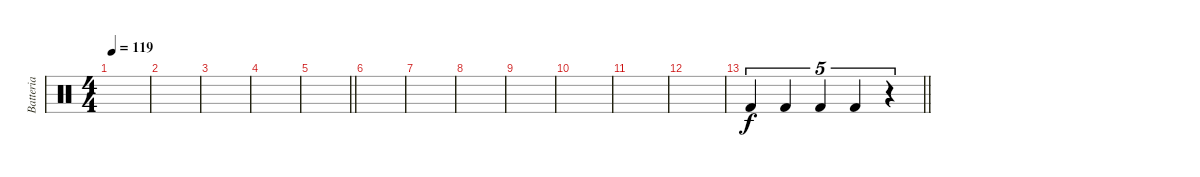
\track ("Batteria" "Batteria") {instrument percussion}
\staff {score}
\articulation defaults
\ts (4 4)
\tempo 119
\clef neutral
\ks c
|
|
|
|
\barLineRight lightlight
|
|
|
|
|
|
|
|
\barLineRight lightlight "Kick (hit) 2".4{tu (5 4)} "Kick (hit) 2".4{tu (5 4)} "Kick (hit) 2".4{tu (5 4)} "Kick (hit) 2".4{tu (5 4)}
r.4{tu (5 4)}
